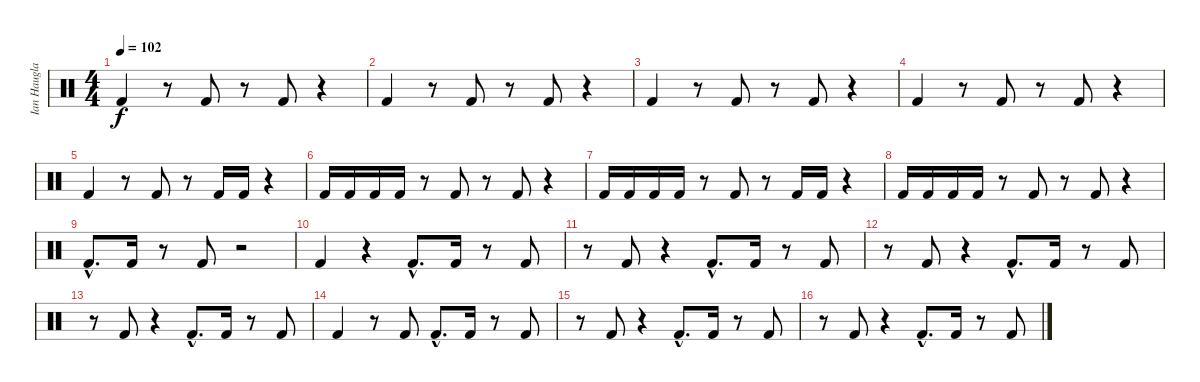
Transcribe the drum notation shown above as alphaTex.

\track ("Ian Haugland Drums" "Ian Haugla") {instrument percussion}
\staff {score}
\articulation defaults
\ts (4 4)
\tempo 102
\clef neutral
\ks c "Kick (hit) 2".4{dy f}
r.8 "Kick (hit) 2".8 r.8 "Kick (hit) 2".8 r.4 |
"Kick (hit) 2".4 r.8 "Kick (hit) 2".8 r.8 "Kick (hit) 2".8 r.4 |
"Kick (hit) 2".4 r.8 "Kick (hit) 2".8 r.8 "Kick (hit) 2".8 r.4 |
"Kick (hit) 2".4 r.8 "Kick (hit) 2".8 r.8 "Kick (hit) 2".8 r.4 |
"Kick (hit) 2".4 r.8 "Kick (hit) 2".8 r.8 "Kick (hit) 2".16 "Kick (hit) 2".16 r.4 |
"Kick (hit) 2".16 "Kick (hit) 2".16 "Kick (hit) 2".16 "Kick (hit) 2".16 r.8 "Kick (hit) 2".8 r.8 "Kick (hit) 2".8 r.4 |
"Kick (hit) 2".16 "Kick (hit) 2".16 "Kick (hit) 2".16 "Kick (hit) 2".16 r.8 "Kick (hit) 2".8 r.8 "Kick (hit) 2".16 "Kick (hit) 2".16 r.4 |
"Kick (hit) 2".16 "Kick (hit) 2".16 "Kick (hit) 2".16 "Kick (hit) 2".16 r.8 "Kick (hit) 2".8 r.8 "Kick (hit) 2".8 r.4 |
"Kick (hit) 2"{hac}.8{d} "Kick (hit) 2".16 r.8 "Kick (hit) 2".8 r.2 |
"Kick (hit) 2".4 r.4 "Kick (hit) 2"{hac}.8{d} "Kick (hit) 2".16 r.8 "Kick (hit) 2".8 |
r.8 "Kick (hit) 2".8 r.4 "Kick (hit) 2"{hac}.8{d} "Kick (hit) 2".16 r.8 "Kick (hit) 2".8 |
r.8 "Kick (hit) 2".8 r.4 "Kick (hit) 2"{hac}.8{d} "Kick (hit) 2".16 r.8 "Kick (hit) 2".8 |
r.8 "Kick (hit) 2".8 r.4 "Kick (hit) 2"{hac}.8{d} "Kick (hit) 2".16 r.8 "Kick (hit) 2".8 |
"Kick (hit) 2".4 r.8 "Kick (hit) 2".8 "Kick (hit) 2"{hac}.8{d} "Kick (hit) 2".16 r.8 "Kick (hit) 2".8 |
r.8 "Kick (hit) 2".8 r.4 "Kick (hit) 2"{hac}.8{d} "Kick (hit) 2".16 r.8 "Kick (hit) 2".8 |
r.8 "Kick (hit) 2".8 r.4 "Kick (hit) 2"{hac}.8{d} "Kick (hit) 2".16 r.8 "Kick (hit) 2".8
